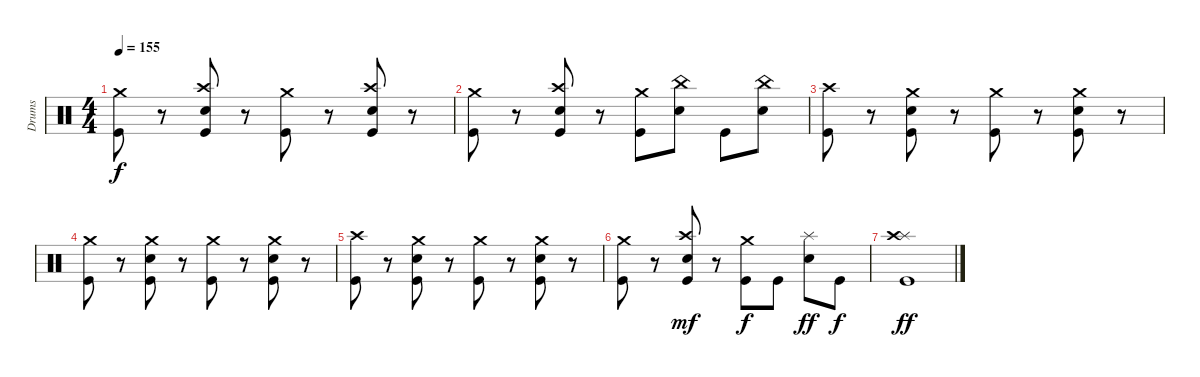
\track ("Drums" "Drums") {instrument percussion}
\staff {score}
\articulation defaults
\ts (4 4)
\tempo 155
\clef neutral
\ks c
("Crash medium (hit)" "Kick (hit)").8{dy f} r.8 ("Crash high (hit)" "Electric Snare (hit)" "Kick (hit)").8 r.8 ("Crash medium (hit)" "Kick (hit)").8 r.8 ("Crash high (hit)" "Electric Snare (hit)" "Kick (hit)").8 r.8 |
("Crash medium (hit)" "Kick (hit)").8 r.8 ("Crash high (hit)" "Electric Snare (hit)" "Kick (hit)").8 r.8 ("Crash medium (hit)" "Kick (hit)").8 ("China (hit)" "Electric Snare (hit)").8 "Kick (hit)".8 ("China (hit)" "Electric Snare (hit)").8 |
("Crash high (hit)" "Kick (hit)").8 r.8 ("Crash medium (hit)" "Electric Snare (hit)" "Kick (hit)").8 r.8 ("Crash medium (hit)" "Kick (hit)").8 r.8 ("Crash medium (hit)" "Electric Snare (hit)" "Kick (hit)").8 r.8 |
("Crash medium (hit)" "Kick (hit)").8 r.8 ("Crash medium (hit)" "Electric Snare (hit)" "Kick (hit)").8 r.8 ("Crash medium (hit)" "Kick (hit)").8 r.8 ("Crash medium (hit)" "Electric Snare (hit)" "Kick (hit)").8 r.8 |
("Crash high (hit)" "Kick (hit)").8 r.8 ("Crash medium (hit)" "Electric Snare (hit)" "Kick (hit)").8 r.8 ("Crash medium (hit)" "Kick (hit)").8 r.8 ("Crash medium (hit)" "Electric Snare (hit)" "Kick (hit)").8 r.8 |
("Crash medium (hit)" "Kick (hit)").8 r.8 ("Crash high (hit)" "Electric Snare (hit)" "Kick (hit)").8{dy mf} r.8 ("Crash medium (hit)" "Kick (hit)").8{dy f} "Kick (hit)".8 ("Splash (hit)" "Electric Snare (hit)").8{dy ff} "Kick (hit)".8{dy f} |
("Splash (hit)" "Crash high (hit)" "Kick (hit)").1{dy ff}
